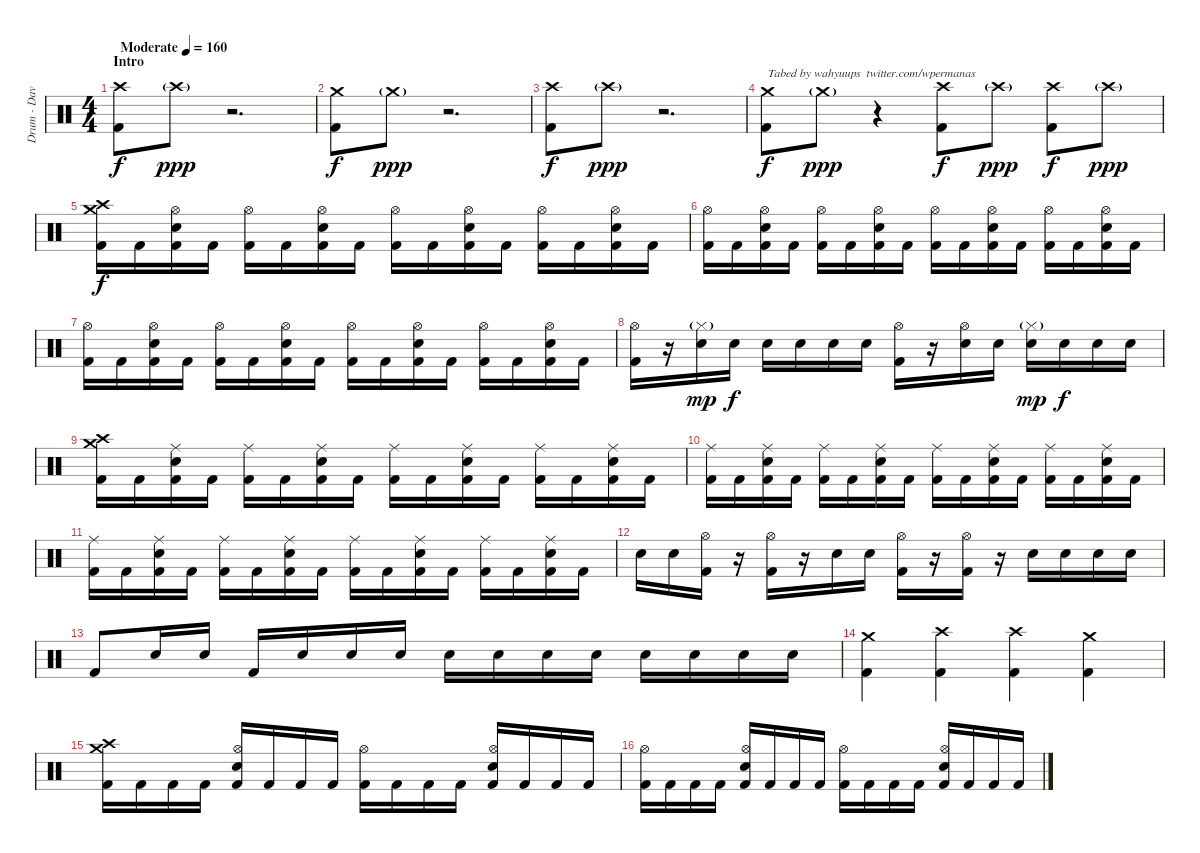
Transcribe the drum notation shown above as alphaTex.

\track ("Drum - Dave Mackintosh" "Drum - Dav") {instrument percussion}
\staff {score}
\articulation defaults
\ts (4 4)
\section ("" "Intro")
\tempo (160 "Moderate")
\clef neutral
\ks c
("Crash high (hit)" "Kick (hit) 2").8{dy f} "Crash high (hit)"{g}.8{dy ppp} r.2{d} |
("Crash medium (hit)" "Kick (hit) 2").8{dy f} "Crash medium (hit)"{g}.8{dy ppp} r.2{d} |
("Crash high (hit)" "Kick (hit) 2").8{dy f} "Crash high (hit)"{g}.8{dy ppp} r.2{d} |
("Crash medium (hit)" "Kick (hit) 2").8{txt "Tabed by wahyuups  twitter.com/wpermanas" dy f} "Crash medium (hit)"{g}.8{dy ppp} r.4 ("Crash high (hit)" "Kick (hit) 2").8{dy f} "Crash high (hit)"{g}.8{dy ppp} ("Crash high (hit)" "Kick (hit) 2").8{dy f} "Crash high (hit)"{g}.8{dy ppp} |
("Crash medium (hit)" "Crash high (hit)" "Kick (hit) 2").16{dy f} "Kick (hit) 2".16 ("Hi-Hat (open)" "Electric Snare (hit)" "Kick (hit) 2").16 "Kick (hit) 2".16 ("Hi-Hat (open)" "Kick (hit) 2").16 "Kick (hit) 2".16 ("Hi-Hat (open)" "Electric Snare (hit)" "Kick (hit) 2").16 "Kick (hit) 2".16 ("Hi-Hat (open)" "Kick (hit) 2").16 "Kick (hit) 2".16 ("Hi-Hat (open)" "Electric Snare (hit)" "Kick (hit) 2").16 "Kick (hit) 2".16 ("Hi-Hat (open)" "Kick (hit) 2").16 "Kick (hit) 2".16 ("Hi-Hat (open)" "Electric Snare (hit)" "Kick (hit) 2").16 "Kick (hit) 2".16 |
("Hi-Hat (open)" "Kick (hit) 2").16 "Kick (hit) 2".16 ("Hi-Hat (open)" "Electric Snare (hit)" "Kick (hit) 2").16 "Kick (hit) 2".16 ("Hi-Hat (open)" "Kick (hit) 2").16 "Kick (hit) 2".16 ("Hi-Hat (open)" "Electric Snare (hit)" "Kick (hit) 2").16 "Kick (hit) 2".16 ("Hi-Hat (open)" "Kick (hit) 2").16 "Kick (hit) 2".16 ("Hi-Hat (open)" "Electric Snare (hit)" "Kick (hit) 2").16 "Kick (hit) 2".16 ("Hi-Hat (open)" "Kick (hit) 2").16 "Kick (hit) 2".16 ("Hi-Hat (open)" "Electric Snare (hit)" "Kick (hit) 2").16 "Kick (hit) 2".16 |
("Hi-Hat (open)" "Kick (hit) 2").16 "Kick (hit) 2".16 ("Hi-Hat (open)" "Electric Snare (hit)" "Kick (hit) 2").16 "Kick (hit) 2".16 ("Hi-Hat (open)" "Kick (hit) 2").16 "Kick (hit) 2".16 ("Hi-Hat (open)" "Electric Snare (hit)" "Kick (hit) 2").16 "Kick (hit) 2".16 ("Hi-Hat (open)" "Kick (hit) 2").16 "Kick (hit) 2".16 ("Hi-Hat (open)" "Electric Snare (hit)" "Kick (hit) 2").16 "Kick (hit) 2".16 ("Hi-Hat (open)" "Kick (hit) 2").16 "Kick (hit) 2".16 ("Hi-Hat (open)" "Electric Snare (hit)" "Kick (hit) 2").16 "Kick (hit) 2".16 |
("Hi-Hat (open)" "Kick (hit) 2").16 r.16 ("Hi-Hat (closed)"{g} "Electric Snare (hit)").16{dy mp} "Electric Snare (hit)".16{dy f} "Electric Snare (hit)".16 "Electric Snare (hit)".16 "Electric Snare (hit)".16 "Electric Snare (hit)".16 ("Hi-Hat (open)" "Kick (hit) 2").16 r.16 ("Hi-Hat (open)" "Electric Snare (hit)").16 "Electric Snare (hit)".16 ("Hi-Hat (closed)"{g} "Electric Snare (hit)").16{dy mp} "Electric Snare (hit)".16{dy f} "Electric Snare (hit)".16 "Electric Snare (hit)".16 |
("Crash high (hit)" "Crash medium (hit)" "Kick (hit) 2").16 "Kick (hit) 2".16 ("Ride (middle)" "Electric Snare (hit)" "Kick (hit) 2").16 "Kick (hit) 2".16 ("Ride (middle)" "Kick (hit) 2").16 "Kick (hit) 2".16 ("Ride (middle)" "Electric Snare (hit)" "Kick (hit) 2").16 "Kick (hit) 2".16 ("Ride (middle)" "Kick (hit) 2").16 "Kick (hit) 2".16 ("Ride (middle)" "Electric Snare (hit)" "Kick (hit) 2").16 "Kick (hit) 2".16 ("Ride (middle)" "Kick (hit) 2").16 "Kick (hit) 2".16 ("Ride (middle)" "Electric Snare (hit)" "Kick (hit) 2").16 "Kick (hit) 2".16 |
("Ride (middle)" "Kick (hit) 2").16 "Kick (hit) 2".16 ("Ride (middle)" "Electric Snare (hit)" "Kick (hit) 2").16 "Kick (hit) 2".16 ("Ride (middle)" "Kick (hit) 2").16 "Kick (hit) 2".16 ("Ride (middle)" "Electric Snare (hit)" "Kick (hit) 2").16 "Kick (hit) 2".16 ("Ride (middle)" "Kick (hit) 2").16 "Kick (hit) 2".16 ("Ride (middle)" "Electric Snare (hit)" "Kick (hit) 2").16 "Kick (hit) 2".16 ("Ride (middle)" "Kick (hit) 2").16 "Kick (hit) 2".16 ("Ride (middle)" "Electric Snare (hit)" "Kick (hit) 2").16 "Kick (hit) 2".16 |
("Ride (middle)" "Kick (hit) 2").16 "Kick (hit) 2".16 ("Ride (middle)" "Electric Snare (hit)" "Kick (hit) 2").16 "Kick (hit) 2".16 ("Ride (middle)" "Kick (hit) 2").16 "Kick (hit) 2".16 ("Ride (middle)" "Electric Snare (hit)" "Kick (hit) 2").16 "Kick (hit) 2".16 ("Ride (middle)" "Kick (hit) 2").16 "Kick (hit) 2".16 ("Ride (middle)" "Electric Snare (hit)" "Kick (hit) 2").16 "Kick (hit) 2".16 ("Ride (middle)" "Kick (hit) 2").16 "Kick (hit) 2".16 ("Ride (middle)" "Electric Snare (hit)" "Kick (hit) 2").16 "Kick (hit) 2".16 |
"Electric Snare (hit)".16 "Electric Snare (hit)".16 ("Hi-Hat (open)" "Kick (hit) 2").16 r.16 ("Hi-Hat (open)" "Kick (hit) 2").16 r.16 "Electric Snare (hit)".16 "Electric Snare (hit)".16 ("Hi-Hat (open)" "Kick (hit) 2").16 r.16 ("Hi-Hat (open)" "Kick (hit) 2").16 r.16 "Electric Snare (hit)".16 "Electric Snare (hit)".16 "Electric Snare (hit)".16 "Electric Snare (hit)".16 |
"Kick (hit) 2".8 "Electric Snare (hit)".16 "Electric Snare (hit)".16 "Kick (hit) 2".16 "Electric Snare (hit)".16 "Electric Snare (hit)".16 "Electric Snare (hit)".16 "Electric Snare (hit)".16 "Electric Snare (hit)".16 "Electric Snare (hit)".16 "Electric Snare (hit)".16 "Electric Snare (hit)".16 "Electric Snare (hit)".16 "Electric Snare (hit)".16 "Electric Snare (hit)".16 |
("Crash medium (hit)" "Kick (hit) 2").4 ("Crash high (hit)" "Kick (hit) 2").4 ("Crash high (hit)" "Kick (hit) 2").4 ("Crash medium (hit)" "Kick (hit) 2").4 |
("Crash medium (hit)" "Crash high (hit)" "Kick (hit) 2").16 "Kick (hit) 2".16 "Kick (hit) 2".16 "Kick (hit) 2".16 ("Hi-Hat (open)" "Electric Snare (hit)" "Kick (hit) 2").16 "Kick (hit) 2".16 "Kick (hit) 2".16 "Kick (hit) 2".16 ("Hi-Hat (open)" "Kick (hit) 2").16 "Kick (hit) 2".16 "Kick (hit) 2".16 "Kick (hit) 2".16 ("Hi-Hat (open)" "Electric Snare (hit)" "Kick (hit) 2").16 "Kick (hit) 2".16 "Kick (hit) 2".16 "Kick (hit) 2".16 |
("Hi-Hat (open)" "Kick (hit) 2").16 "Kick (hit) 2".16 "Kick (hit) 2".16 "Kick (hit) 2".16 ("Hi-Hat (open)" "Electric Snare (hit)" "Kick (hit) 2").16 "Kick (hit) 2".16 "Kick (hit) 2".16 "Kick (hit) 2".16 ("Hi-Hat (open)" "Kick (hit) 2").16 "Kick (hit) 2".16 "Kick (hit) 2".16 "Kick (hit) 2".16 ("Hi-Hat (open)" "Electric Snare (hit)" "Kick (hit) 2").16 "Kick (hit) 2".16 "Kick (hit) 2".16 "Kick (hit) 2".16
